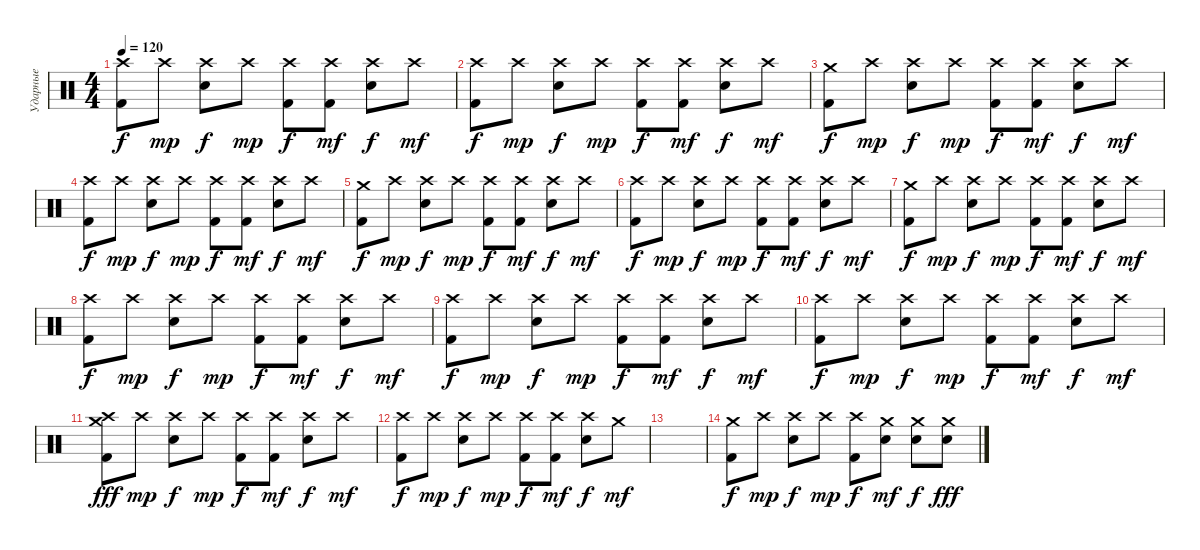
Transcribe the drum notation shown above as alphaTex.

\track ("Ударные" "Ударные") {instrument percussion}
\staff {score}
\articulation defaults
\ts (4 4)
\tempo 120
\clef neutral
\ks c
("Crash high (hit)" "Kick (hit) 2").8{dy f} "Crash high (hit)".8{dy mp} ("Crash high (hit)" "Electric Snare (hit)").8{dy f} "Crash high (hit)".8{dy mp} ("Crash high (hit)" "Kick (hit) 2").8{dy f} ("Crash high (hit)" "Kick (hit) 2").8{dy mf} ("Crash high (hit)" "Electric Snare (hit)").8{dy f} "Crash high (hit)".8{dy mf} |
("Crash high (hit)" "Kick (hit) 2").8{dy f} "Crash high (hit)".8{dy mp} ("Crash high (hit)" "Electric Snare (hit)").8{dy f} "Crash high (hit)".8{dy mp} ("Crash high (hit)" "Kick (hit) 2").8{dy f} ("Crash high (hit)" "Kick (hit) 2").8{dy mf} ("Crash high (hit)" "Electric Snare (hit)").8{dy f} "Crash high (hit)".8{dy mf} |
("Crash medium (hit)" "Kick (hit) 2").8{dy f} "Crash high (hit)".8{dy mp} ("Crash high (hit)" "Electric Snare (hit)").8{dy f} "Crash high (hit)".8{dy mp} ("Crash high (hit)" "Kick (hit) 2").8{dy f} ("Crash high (hit)" "Kick (hit) 2").8{dy mf} ("Crash high (hit)" "Electric Snare (hit)").8{dy f} "Crash high (hit)".8{dy mf} |
("Crash high (hit)" "Kick (hit) 2").8{dy f} "Crash high (hit)".8{dy mp} ("Crash high (hit)" "Electric Snare (hit)").8{dy f} "Crash high (hit)".8{dy mp} ("Crash high (hit)" "Kick (hit) 2").8{dy f} ("Crash high (hit)" "Kick (hit) 2").8{dy mf} ("Crash high (hit)" "Electric Snare (hit)").8{dy f} "Crash high (hit)".8{dy mf} |
("Crash medium (hit)" "Kick (hit) 2").8{dy f} "Crash high (hit)".8{dy mp} ("Crash high (hit)" "Electric Snare (hit)").8{dy f} "Crash high (hit)".8{dy mp} ("Crash high (hit)" "Kick (hit) 2").8{dy f} ("Crash high (hit)" "Kick (hit) 2").8{dy mf} ("Crash high (hit)" "Electric Snare (hit)").8{dy f} "Crash high (hit)".8{dy mf} |
("Crash high (hit)" "Kick (hit) 2").8{dy f} "Crash high (hit)".8{dy mp} ("Crash high (hit)" "Electric Snare (hit)").8{dy f} "Crash high (hit)".8{dy mp} ("Crash high (hit)" "Kick (hit) 2").8{dy f} ("Crash high (hit)" "Kick (hit) 2").8{dy mf} ("Crash high (hit)" "Electric Snare (hit)").8{dy f} "Crash high (hit)".8{dy mf} |
("Crash medium (hit)" "Kick (hit) 2").8{dy f} "Crash high (hit)".8{dy mp} ("Crash high (hit)" "Electric Snare (hit)").8{dy f} "Crash high (hit)".8{dy mp} ("Crash high (hit)" "Kick (hit) 2").8{dy f} ("Crash high (hit)" "Kick (hit) 2").8{dy mf} ("Crash high (hit)" "Electric Snare (hit)").8{dy f} "Crash high (hit)".8{dy mf} |
("Crash high (hit)" "Kick (hit) 2").8{dy f} "Crash high (hit)".8{dy mp} ("Crash high (hit)" "Electric Snare (hit)").8{dy f} "Crash high (hit)".8{dy mp} ("Crash high (hit)" "Kick (hit) 2").8{dy f} ("Crash high (hit)" "Kick (hit) 2").8{dy mf} ("Crash high (hit)" "Electric Snare (hit)").8{dy f} "Crash high (hit)".8{dy mf} |
("Crash high (hit)" "Kick (hit) 2").8{dy f} "Crash high (hit)".8{dy mp} ("Crash high (hit)" "Electric Snare (hit)").8{dy f} "Crash high (hit)".8{dy mp} ("Crash high (hit)" "Kick (hit) 2").8{dy f} ("Crash high (hit)" "Kick (hit) 2").8{dy mf} ("Crash high (hit)" "Electric Snare (hit)").8{dy f} "Crash high (hit)".8{dy mf} |
("Crash high (hit)" "Kick (hit) 2").8{dy f} "Crash high (hit)".8{dy mp} ("Crash high (hit)" "Electric Snare (hit)").8{dy f} "Crash high (hit)".8{dy mp} ("Crash high (hit)" "Kick (hit) 2").8{dy f} ("Crash high (hit)" "Kick (hit) 2").8{dy mf} ("Crash high (hit)" "Electric Snare (hit)").8{dy f} "Crash high (hit)".8{dy mf} |
("Crash medium (hit)" "Crash high (hit)" "Kick (hit) 2").8{dy fff} "Crash high (hit)".8{dy mp} ("Crash high (hit)" "Electric Snare (hit)").8{dy f} "Crash high (hit)".8{dy mp} ("Crash high (hit)" "Kick (hit) 2").8{dy f} ("Crash high (hit)" "Kick (hit) 2").8{dy mf} ("Crash high (hit)" "Electric Snare (hit)").8{dy f} "Crash high (hit)".8{dy mf} |
("Crash high (hit)" "Kick (hit) 2").8{dy f} "Crash high (hit)".8{dy mp} ("Crash high (hit)" "Electric Snare (hit)").8{dy f} "Crash high (hit)".8{dy mp} ("Crash high (hit)" "Kick (hit) 2").8{dy f} ("Crash high (hit)" "Kick (hit) 2").8{dy mf} ("Crash high (hit)" "Electric Snare (hit)").8{dy f} "Crash medium (hit)".8{dy mf} |
|
("Crash medium (hit)" "Kick (hit) 2").8{dy f} "Crash high (hit)".8{dy mp} ("Crash high (hit)" "Electric Snare (hit)").8{dy f} "Crash high (hit)".8{dy mp} ("Crash high (hit)" "Kick (hit) 2").8{dy f} ("Crash medium (hit)" "Electric Snare (hit)").8{dy mf} ("Crash medium (hit)" "Electric Snare (hit)").8{dy f} ("Crash medium (hit)" "Electric Snare (hit)").8{dy fff}
